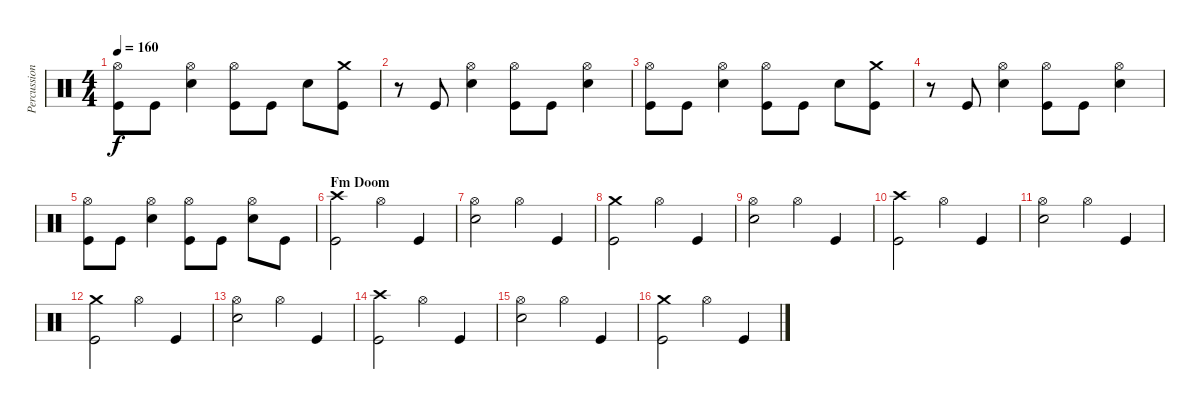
\track ("Percussion" "Percussion") {instrument percussion}
\staff {score}
\articulation defaults
\ts (4 4)
\tempo 160
\clef neutral
\ks c
("Hi-Hat (open)" "Kick (hit)").8{dy f} "Kick (hit)".8 ("Hi-Hat (open)" "Electric Snare (hit)").4 ("Hi-Hat (open)" "Kick (hit)").8 "Kick (hit)".8 "Electric Snare (hit)".8 ("Crash medium (hit)" "Kick (hit)").8 |
r.8 "Kick (hit)".8 ("Hi-Hat (open)" "Electric Snare (hit)").4 ("Hi-Hat (open)" "Kick (hit)").8 "Kick (hit)".8 ("Hi-Hat (open)" "Electric Snare (hit)").4 |
("Hi-Hat (open)" "Kick (hit)").8 "Kick (hit)".8 ("Hi-Hat (open)" "Electric Snare (hit)").4 ("Hi-Hat (open)" "Kick (hit)").8 "Kick (hit)".8 "Electric Snare (hit)".8 ("Crash medium (hit)" "Kick (hit)").8 |
r.8 "Kick (hit)".8 ("Hi-Hat (open)" "Electric Snare (hit)").4 ("Hi-Hat (open)" "Kick (hit)").8 "Kick (hit)".8 ("Hi-Hat (open)" "Electric Snare (hit)").4 |
("Hi-Hat (open)" "Kick (hit)").8 "Kick (hit)".8 ("Hi-Hat (open)" "Electric Snare (hit)").4 ("Hi-Hat (open)" "Kick (hit)").8 "Kick (hit)".8 ("Hi-Hat (open)" "Electric Snare (hit)").8 "Kick (hit)".8 |
\section ("" "Fm Doom")
("Crash high (hit)" "Kick (hit)").2 "Hi-Hat (open)".4 "Kick (hit)".4 |
("Hi-Hat (open)" "Electric Snare (hit)").2 "Hi-Hat (open)".4 "Kick (hit)".4 |
("Crash medium (hit)" "Kick (hit)").2 "Hi-Hat (open)".4 "Kick (hit)".4 |
("Hi-Hat (open)" "Electric Snare (hit)").2 "Hi-Hat (open)".4 "Kick (hit)".4 |
("Crash high (hit)" "Kick (hit)").2 "Hi-Hat (open)".4 "Kick (hit)".4 |
("Hi-Hat (open)" "Electric Snare (hit)").2 "Hi-Hat (open)".4 "Kick (hit)".4 |
("Crash medium (hit)" "Kick (hit)").2 "Hi-Hat (open)".4 "Kick (hit)".4 |
("Hi-Hat (open)" "Electric Snare (hit)").2 "Hi-Hat (open)".4 "Kick (hit)".4 |
("Crash high (hit)" "Kick (hit)").2 "Hi-Hat (open)".4 "Kick (hit)".4 |
("Hi-Hat (open)" "Electric Snare (hit)").2 "Hi-Hat (open)".4 "Kick (hit)".4 |
("Crash medium (hit)" "Kick (hit)").2 "Hi-Hat (open)".4 "Kick (hit)".4
